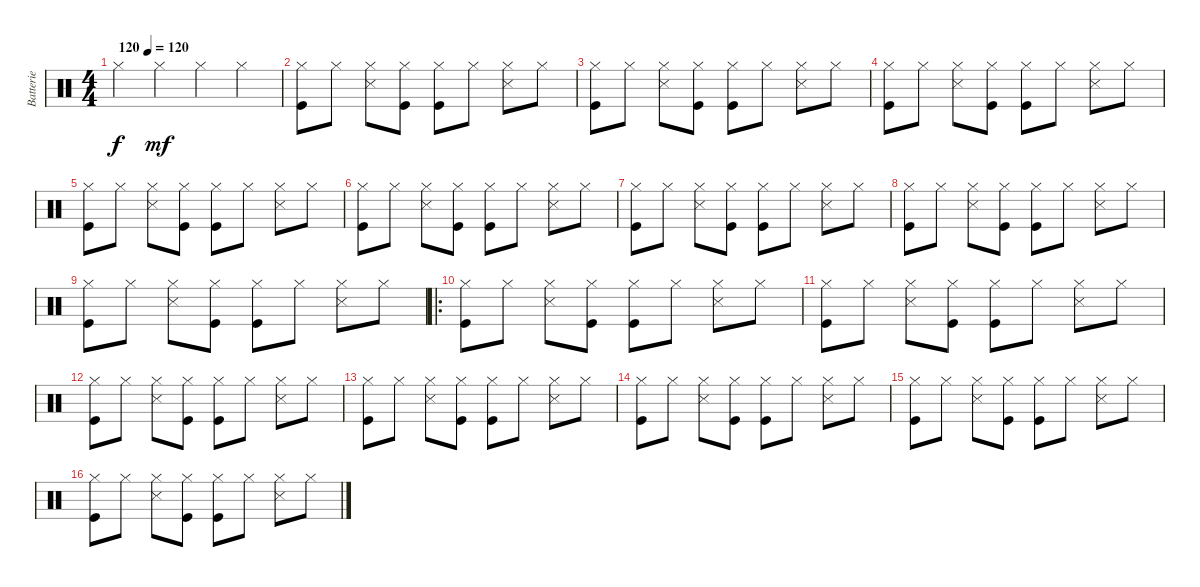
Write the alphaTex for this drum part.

\track ("Batterie" "Batterie") {instrument percussion}
\staff {score}
\articulation defaults
\ts (4 4)
\tempo (120 "120")
\clef neutral
\ks c "Hi-Hat (closed)".4{dy f} "Hi-Hat (closed)".4{dy mf} "Hi-Hat (closed)".4 "Hi-Hat (closed)".4
|
("Hi-Hat (closed)" "Kick (hit)").8 "Hi-Hat (closed)".8 ("Hi-Hat (closed)" "Snare (side stick) 3").8 ("Hi-Hat (closed)" "Kick (hit)").8 ("Hi-Hat (closed)" "Kick (hit)").8 "Hi-Hat (closed)".8 ("Hi-Hat (closed)" "Snare (side stick) 3").8 "Hi-Hat (closed)".8 |
("Hi-Hat (closed)" "Kick (hit)").8 "Hi-Hat (closed)".8 ("Hi-Hat (closed)" "Snare (side stick) 3").8 ("Hi-Hat (closed)" "Kick (hit)").8 ("Hi-Hat (closed)" "Kick (hit)").8 "Hi-Hat (closed)".8 ("Hi-Hat (closed)" "Snare (side stick) 3").8 "Hi-Hat (closed)".8 |
("Hi-Hat (closed)" "Kick (hit)").8 "Hi-Hat (closed)".8 ("Hi-Hat (closed)" "Snare (side stick) 3").8 ("Hi-Hat (closed)" "Kick (hit)").8 ("Hi-Hat (closed)" "Kick (hit)").8 "Hi-Hat (closed)".8 ("Hi-Hat (closed)" "Snare (side stick) 3").8 "Hi-Hat (closed)".8 |
("Hi-Hat (closed)" "Kick (hit)").8 "Hi-Hat (closed)".8 ("Hi-Hat (closed)" "Snare (side stick) 3").8 ("Hi-Hat (closed)" "Kick (hit)").8 ("Hi-Hat (closed)" "Kick (hit)").8 "Hi-Hat (closed)".8 ("Hi-Hat (closed)" "Snare (side stick) 3").8 "Hi-Hat (closed)".8 |
("Hi-Hat (closed)" "Kick (hit)").8 "Hi-Hat (closed)".8 ("Hi-Hat (closed)" "Snare (side stick) 3").8 ("Hi-Hat (closed)" "Kick (hit)").8 ("Hi-Hat (closed)" "Kick (hit)").8 "Hi-Hat (closed)".8 ("Hi-Hat (closed)" "Snare (side stick) 3").8 "Hi-Hat (closed)".8 |
("Hi-Hat (closed)" "Kick (hit)").8 "Hi-Hat (closed)".8 ("Hi-Hat (closed)" "Snare (side stick) 3").8 ("Hi-Hat (closed)" "Kick (hit)").8 ("Hi-Hat (closed)" "Kick (hit)").8 "Hi-Hat (closed)".8 ("Hi-Hat (closed)" "Snare (side stick) 3").8 "Hi-Hat (closed)".8 |
("Hi-Hat (closed)" "Kick (hit)").8 "Hi-Hat (closed)".8 ("Hi-Hat (closed)" "Snare (side stick) 3").8 ("Hi-Hat (closed)" "Kick (hit)").8 ("Hi-Hat (closed)" "Kick (hit)").8 "Hi-Hat (closed)".8 ("Hi-Hat (closed)" "Snare (side stick) 3").8 "Hi-Hat (closed)".8 |
("Hi-Hat (closed)" "Kick (hit)").8 "Hi-Hat (closed)".8 ("Hi-Hat (closed)" "Snare (side stick) 3").8 ("Hi-Hat (closed)" "Kick (hit)").8 ("Hi-Hat (closed)" "Kick (hit)").8 "Hi-Hat (closed)".8 ("Hi-Hat (closed)" "Snare (side stick) 3").8 "Hi-Hat (closed)".8 |
\ro
("Hi-Hat (closed)" "Kick (hit)").8 "Hi-Hat (closed)".8 ("Hi-Hat (closed)" "Snare (side stick) 3").8 ("Hi-Hat (closed)" "Kick (hit)").8 ("Hi-Hat (closed)" "Kick (hit)").8 "Hi-Hat (closed)".8 ("Hi-Hat (closed)" "Snare (side stick) 3").8 "Hi-Hat (closed)".8 |
("Hi-Hat (closed)" "Kick (hit)").8 "Hi-Hat (closed)".8 ("Hi-Hat (closed)" "Snare (side stick) 3").8 ("Hi-Hat (closed)" "Kick (hit)").8 ("Hi-Hat (closed)" "Kick (hit)").8 "Hi-Hat (closed)".8 ("Hi-Hat (closed)" "Snare (side stick) 3").8 "Hi-Hat (closed)".8 |
("Hi-Hat (closed)" "Kick (hit)").8 "Hi-Hat (closed)".8 ("Hi-Hat (closed)" "Snare (side stick) 3").8 ("Hi-Hat (closed)" "Kick (hit)").8 ("Hi-Hat (closed)" "Kick (hit)").8 "Hi-Hat (closed)".8 ("Hi-Hat (closed)" "Snare (side stick) 3").8 "Hi-Hat (closed)".8 |
("Hi-Hat (closed)" "Kick (hit)").8 "Hi-Hat (closed)".8 ("Hi-Hat (closed)" "Snare (side stick) 3").8 ("Hi-Hat (closed)" "Kick (hit)").8 ("Hi-Hat (closed)" "Kick (hit)").8 "Hi-Hat (closed)".8 ("Hi-Hat (closed)" "Snare (side stick) 3").8 "Hi-Hat (closed)".8 |
("Hi-Hat (closed)" "Kick (hit)").8 "Hi-Hat (closed)".8 ("Hi-Hat (closed)" "Snare (side stick) 3").8 ("Hi-Hat (closed)" "Kick (hit)").8 ("Hi-Hat (closed)" "Kick (hit)").8 "Hi-Hat (closed)".8 ("Hi-Hat (closed)" "Snare (side stick) 3").8 "Hi-Hat (closed)".8 |
("Hi-Hat (closed)" "Kick (hit)").8 "Hi-Hat (closed)".8 ("Hi-Hat (closed)" "Snare (side stick) 3").8 ("Hi-Hat (closed)" "Kick (hit)").8 ("Hi-Hat (closed)" "Kick (hit)").8 "Hi-Hat (closed)".8 ("Hi-Hat (closed)" "Snare (side stick) 3").8 "Hi-Hat (closed)".8 |
("Hi-Hat (closed)" "Kick (hit)").8 "Hi-Hat (closed)".8 ("Hi-Hat (closed)" "Snare (side stick) 3").8 ("Hi-Hat (closed)" "Kick (hit)").8 ("Hi-Hat (closed)" "Kick (hit)").8 "Hi-Hat (closed)".8 ("Hi-Hat (closed)" "Snare (side stick) 3").8 "Hi-Hat (closed)".8
